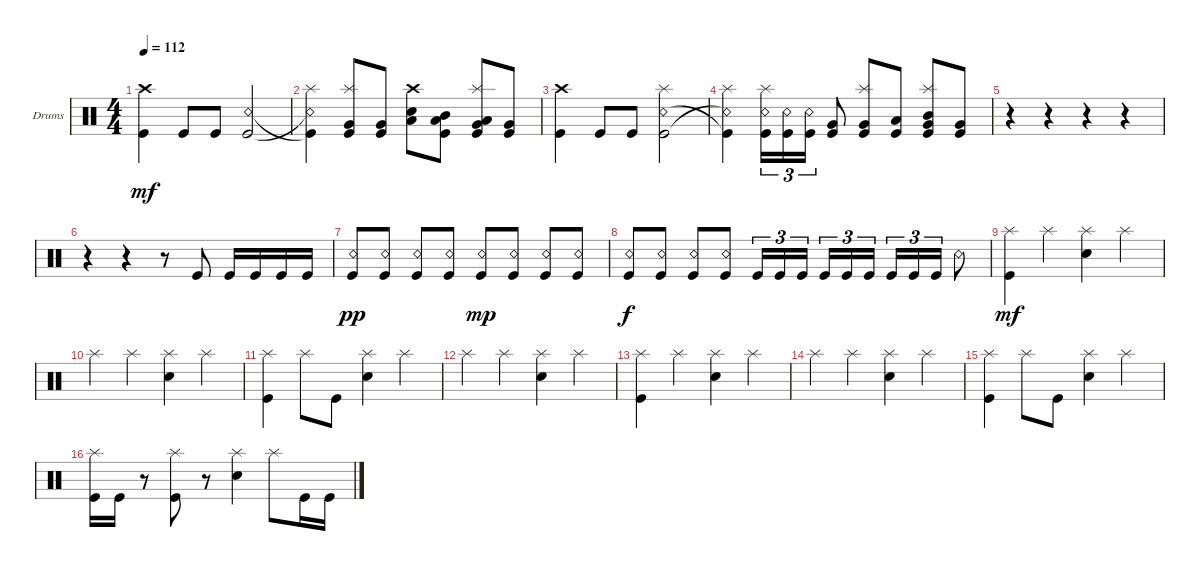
\defaultSystemsLayout 4
\bracketExtendMode groupsimilarinstruments
\firstSystemTrackNameOrientation horizontal
\otherSystemsTrackNameOrientation horizontal
\track ("Drumkit" "Drums") {instrument percussion}
\staff {score}
\articulation defaults
\ts (4 4)
\tempo 112
\clef neutral
\ks c
("Kick (hit)" "Crash high (hit)").4{dy mf} "Kick (hit)".8 "Kick (hit)".8 ("Snare (rim shot)" "Kick (hit)").2 |
("Kick (hit)"{t} "Snare (rim shot)"{t} "Splash (hit)").4 ("Kick (hit)" "Very Low Tom (hit)" "Splash (hit)").8 ("Kick (hit)" "Very Low Tom (hit)").8 ("Snare (hit) 2" "Crash high (hit)" "Low Tom (hit)").8 ("Kick (hit)" "Mid Tom (hit)" "Low Tom (hit)").8 ("Kick (hit)" "Very Low Tom (hit)" "Low Tom (hit)" "Splash (hit)").8 ("Kick (hit)" "Very Low Tom (hit)").8 |
("Kick (hit)" "Crash high (hit)").4 "Kick (hit)".8 "Kick (hit)".8 ("Snare (rim shot)" "Kick (hit)" "Splash (hit)").2 |
("Kick (hit)"{t} "Snare (rim shot)"{t} "Splash (hit)").4 ("Snare (rim shot)" "Kick (hit)" "Splash (hit)").16{tu (3 2)} ("Kick (hit)" "Snare (rim shot)").16{tu (3 2)} ("Kick (hit)" "Snare (rim shot)").16{tu (3 2)} ("Kick (hit)" "Very Low Tom (hit)").8 ("Kick (hit)" "Very Low Tom (hit)" "Splash (hit)").8 ("Kick (hit)" "Low Tom (hit)").8 ("Kick (hit)" "Very Low Tom (hit)" "Mid Tom (hit)" "Splash (hit)").8 ("Kick (hit)" "Very Low Tom (hit)").8 |
r.4 r.4 r.4 r.4 |
r.4 r.4 r.8 "Kick (hit)".8 "Kick (hit)".16 "Kick (hit)".16 "Kick (hit)".16 "Kick (hit)".16 |
("Kick (hit)" "Snare (rim shot)").8{dy pp} ("Kick (hit)" "Snare (rim shot)").8 ("Kick (hit)" "Snare (rim shot)").8 ("Kick (hit)" "Snare (rim shot)").8 ("Kick (hit)" "Snare (rim shot)").8{dy mp} ("Kick (hit)" "Snare (rim shot)").8 ("Kick (hit)" "Snare (rim shot)").8 ("Kick (hit)" "Snare (rim shot)").8 |
("Kick (hit)" "Snare (rim shot)").8{dy f} ("Kick (hit)" "Snare (rim shot)").8 ("Kick (hit)" "Snare (rim shot)").8 ("Kick (hit)" "Snare (rim shot)").8 "Kick (hit)".16{tu (3 2)} "Kick (hit)".16{tu (3 2)} "Kick (hit)".16{tu (3 2)} "Kick (hit)".16{tu (3 2)} "Kick (hit)".16{tu (3 2)} "Kick (hit)".16{tu (3 2)} "Kick (hit)".16{tu (3 2)} "Kick (hit)".16{tu (3 2)} "Kick (hit)".16{tu (3 2)} "Snare (rim shot)".8 |
("Splash (hit)" "Kick (hit)").4{dy mf} "Splash (hit)".4 ("Splash (hit)" "Snare (hit) 2").4 "Splash (hit)".4 |
"Splash (hit)".4 "Splash (hit)".4 ("Splash (hit)" "Snare (hit) 2").4 "Splash (hit)".4 |
("Splash (hit)" "Kick (hit)").4 "Splash (hit)".8 "Kick (hit)".8 ("Splash (hit)" "Snare (hit) 2").4 "Splash (hit)".4 |
"Splash (hit)".4 "Splash (hit)".4 ("Splash (hit)" "Snare (hit) 2").4 "Splash (hit)".4 |
("Splash (hit)" "Kick (hit)").4 "Splash (hit)".4 ("Splash (hit)" "Snare (hit) 2").4 "Splash (hit)".4 |
"Splash (hit)".4 "Splash (hit)".4 ("Splash (hit)" "Snare (hit) 2").4 "Splash (hit)".4 |
("Splash (hit)" "Kick (hit)").4 "Splash (hit)".8 "Kick (hit)".8 ("Splash (hit)" "Snare (hit) 2").4 "Splash (hit)".4 |
("Splash (hit)" "Kick (hit)").16 "Kick (hit)".16 r.8 ("Kick (hit)" "Splash (hit)").8 r.8 ("Splash (hit)" "Snare (hit) 2").4 "Splash (hit)".8 "Kick (hit)".16 "Kick (hit)".16
